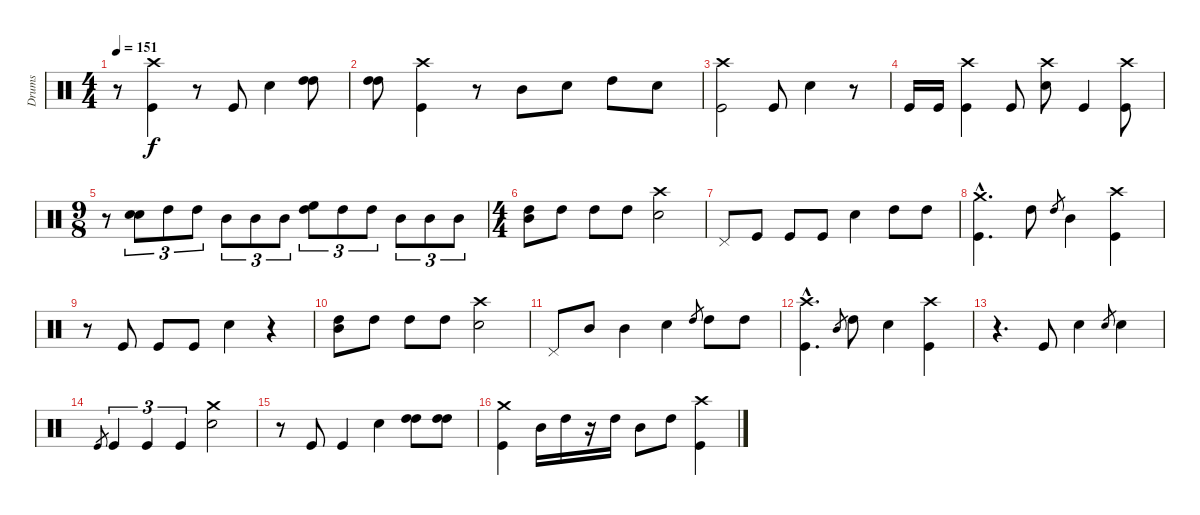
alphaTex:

\track ("Drums" "Drums") {instrument percussion}
\staff {score}
\articulation defaults
\ts (4 4)
\tempo 151
\clef neutral
\ks c
r.8{dy f} ("Crash high (hit)" "Kick (hit)").4 r.8 "Kick (hit)".8 "Snare (hit) 2".4 ("High Tom (hit)" "High Tom (hit)").8 |
("High Tom (hit)" "High Tom (hit)").8 ("Crash high (hit)" "Kick (hit)").4 r.8 "Mid Tom (hit)".8 "Snare (hit) 2".8 "High Tom (hit)".8 "Snare (hit) 2".8 |
("Crash high (hit)" "Kick (hit)").2 "Kick (hit)".8 "Snare (hit) 2".4 r.8 |
"Kick (hit)".16 "Kick (hit)".16 ("Crash high (hit)" "Kick (hit)").4 "Kick (hit)".8 ("Crash high (hit)" "Snare (hit) 2").8 "Kick (hit)".4 ("Crash high (hit)" "Kick (hit)").8 |
\ts (9 8)
r.8 ("Snare (hit) 2" "Snare (hit) 2").8{tu (3 2)} "High Tom (hit)".8{tu (3 2)} "High Tom (hit)".8{tu (3 2)} "Mid Tom (hit)".8{tu (3 2)} "Mid Tom (hit)".8{tu (3 2)} "Mid Tom (hit)".8{tu (3 2)} ("High Floor Tom (hit)" "High Tom (hit)").8{tu (3 2)} "High Tom (hit)".8{tu (3 2)} "High Tom (hit)".8{tu (3 2)} "Mid Tom (hit)".8{tu (3 2)} "Mid Tom (hit)".8{tu (3 2)} "Mid Tom (hit)".8{tu (3 2)} |
\ts (4 4)
("Mid Tom (hit)" "High Tom (hit)").8 "High Tom (hit)".8 "High Tom (hit)".8 "High Tom (hit)".8 ("Crash high (hit)" "Snare (hit) 2").2 |
"Pedal Hi-Hat (hit)".8 "Kick (hit)".8 "Kick (hit)".8 "Kick (hit)".8 "Snare (hit) 2".4 "High Tom (hit)".8 "High Tom (hit)".8 |
("Crash medium (hit)"{hac} "Kick (hit)"{hac}).4{d} "High Tom (hit)".8 "High Tom (hit)".8{gr} "Mid Tom (hit)".4 ("Crash high (hit)" "Kick (hit)").4 |
r.8 "Kick (hit)".8 "Kick (hit)".8 "Kick (hit)".8 "Snare (hit) 2".4 r.4 |
("Mid Tom (hit)" "High Tom (hit)").8 "High Tom (hit)".8 "High Tom (hit)".8 "High Tom (hit)".8 ("Crash high (hit)" "Snare (hit) 2").2 |
"Pedal Hi-Hat (hit)".8 "Mid Tom (hit)".8 "Mid Tom (hit)".4 "Snare (hit) 2".4 "High Tom (hit)".8{gr} "High Tom (hit)".8 "High Tom (hit)".8 |
("Crash high (hit)"{hac} "Kick (hit)"{hac}).4{d} "Mid Tom (hit)".8{gr} "High Tom (hit)".8 "Snare (hit) 2".4 ("Crash high (hit)" "Kick (hit)").4 |
r.4{d} "Kick (hit)".8 "Snare (hit) 2".4 "Snare (hit) 2".8{gr} "Snare (hit) 2".4 |
"Kick (hit)".8{gr} "Kick (hit)".4{tu (3 2)} "Kick (hit)".4{tu (3 2)} "Kick (hit)".4{tu (3 2)} ("Crash medium (hit)" "Snare (hit) 2").2 |
r.8 "Kick (hit)".8 "Kick (hit)".4 "Snare (hit) 2".4 ("High Tom (hit)" "High Tom (hit)").8 ("High Tom (hit)" "High Tom (hit)").8 |
("Crash medium (hit)" "Kick (hit)").4 "Mid Tom (hit)".16 "High Tom (hit)".16 r.16 "High Tom (hit)".16 "Mid Tom (hit)".8 "High Tom (hit)".8 ("Crash high (hit)" "Kick (hit)").4
